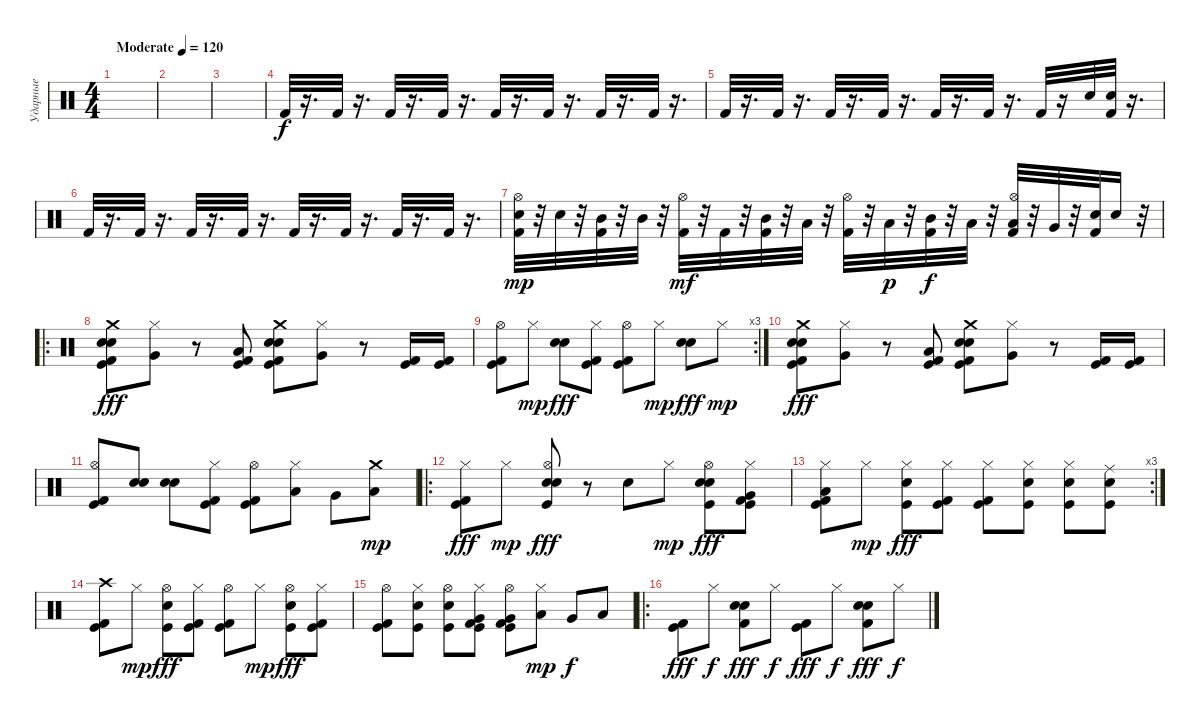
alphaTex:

\track ("Ударные" "Ударные") {instrument percussion}
\staff {score}
\articulation defaults
\ts (4 4)
\tempo (120 "Moderate")
\clef neutral
\ks c
|
|
|
"Kick (hit) 2".32 r.16{d} "Kick (hit) 2".32 r.16{d} "Kick (hit) 2".32 r.16{d} "Kick (hit) 2".32 r.16{d} "Kick (hit) 2".32 r.16{d} "Kick (hit) 2".32 r.16{d} "Kick (hit) 2".32 r.16{d} "Kick (hit) 2".32 r.16{d} |
"Kick (hit) 2".32 r.16{d} "Kick (hit) 2".32 r.16{d} "Kick (hit) 2".32 r.16{d} "Kick (hit) 2".32 r.16{d} "Kick (hit) 2".32 r.16{d} "Kick (hit) 2".32 r.16{d} "Kick (hit) 2".32 r.16 "Electric Snare (hit)".32 ("Kick (hit) 2" "Electric Snare (hit)").32 r.16{d} |
"Kick (hit) 2".32 r.16{d} "Kick (hit) 2".32 r.16{d} "Kick (hit) 2".32 r.16{d} "Kick (hit) 2".32 r.16{d} "Kick (hit) 2".32 r.16{d} "Kick (hit) 2".32 r.16{d} "Kick (hit) 2".32 r.16{d} "Kick (hit) 2".32 r.16{d} |
("Hi-Hat (open)" "Kick (hit) 2" "Electric Snare (hit)").32{dy mp} r.32 "Electric Snare (hit)".32 r.32 ("Kick (hit) 2" "Mid Tom (hit)").32 r.32 "Mid Tom (hit)".32 r.32 ("Hi-Hat (open)" "Kick (hit) 2").32{dy mf} r.32 "Kick (hit) 2".32 r.32 ("Kick (hit) 2" "Mid Tom (hit)").32 r.32 "Low Tom (hit)".32 r.32 ("Hi-Hat (open)" "Kick (hit) 2").32 r.32 "Low Tom (hit)".32{dy p} r.32 ("Kick (hit) 2" "Mid Tom (hit)").32{dy f} r.32 "Low Tom (hit)".32 r.32 ("Hi-Hat (open)" "Kick (hit) 2" "Low Tom (hit)").32 r.32 "Very Low Tom (hit)".32 r.32 ("Kick (hit) 2" "Electric Snare (hit)").32 "Electric Snare (hit)".16 r.32 |
\ro
("Crash medium (hit)" "Electric Snare (hit)" "Snare (hit) 2" "Kick (hit)" "Kick (hit) 2").8{dy fff} ("Hi-Hat (closed)" "Very Low Tom (hit)").8 r.8 ("Kick (hit) 2" "Low Tom (hit)" "Kick (hit)").8 ("Crash medium (hit)" "Snare (hit) 2" "Electric Snare (hit)" "Kick (hit)" "Kick (hit) 2").8 ("Hi-Hat (closed)" "Very Low Tom (hit)").8 r.8 ("Kick (hit) 2" "Kick (hit)").16 ("Kick (hit)" "Kick (hit) 2").16 |
\rc 3
("Hi-Hat (open)" "Kick (hit) 2" "Kick (hit)").8 "Hi-Hat (closed)".8{dy mp} ("Electric Snare (hit)" "Snare (hit) 2").8{dy fff} ("Hi-Hat (closed)" "Kick (hit)" "Kick (hit) 2").8 ("Hi-Hat (open)" "Kick (hit)" "Kick (hit) 2").8 "Hi-Hat (closed)".8{dy mp} ("Electric Snare (hit)" "Snare (hit) 2").8{dy fff} "Hi-Hat (closed)".8{dy mp} |
("Crash medium (hit)" "Electric Snare (hit)" "Snare (hit) 2" "Kick (hit)" "Kick (hit) 2").8{dy fff} ("Hi-Hat (closed)" "Very Low Tom (hit)").8 r.8 ("Kick (hit) 2" "Low Tom (hit)" "Kick (hit)").8 ("Crash medium (hit)" "Snare (hit) 2" "Electric Snare (hit)" "Kick (hit)" "Kick (hit) 2").8 ("Hi-Hat (closed)" "Very Low Tom (hit)").8 r.8 ("Kick (hit) 2" "Kick (hit)").16 ("Kick (hit)" "Kick (hit) 2").16 |
("Hi-Hat (open)" "Kick (hit)" "Kick (hit) 2").8 ("Electric Snare (hit)" "Snare (hit) 2").8 ("Electric Snare (hit)" "Snare (hit) 2").8 ("Hi-Hat (closed)" "Kick (hit)" "Kick (hit) 2").8 ("Hi-Hat (open)" "Kick (hit)" "Kick (hit) 2").8 ("Hi-Hat (closed)" "Low Floor Tom (hit)").8 "Very Low Tom (hit)".8 ("Crash medium (hit)" "Low Tom (hit)").8{dy mp} |
\ro
("Hi-Hat (closed)" "Kick (hit)" "Kick (hit) 2").8{dy fff} "Hi-Hat (closed)".8{dy mp} ("Hi-Hat (open)" "Electric Snare (hit)" "Snare (hit) 2" "Kick (hit)").8{dy fff} r.8 "Snare (hit) 2".8 "Hi-Hat (closed)".8{dy mp} ("Hi-Hat (open)" "Electric Snare (hit)" "Snare (hit) 2" "Kick (hit)").8{dy fff} ("Hi-Hat (closed)" "Very Low Tom (hit)" "Kick (hit) 2" "Kick (hit)").8 |
\rc 3
("Hi-Hat (closed)" "Low Tom (hit)" "Kick (hit)" "Kick (hit) 2").8 "Hi-Hat (closed)".8{dy mp} ("Hi-Hat (closed)" "Electric Snare (hit)" "Kick (hit)").8{dy fff} ("Hi-Hat (closed)" "Kick (hit)" "Kick (hit) 2").8 ("Hi-Hat (closed)" "Kick (hit)" "Kick (hit) 2").8 ("Hi-Hat (closed)" "Snare (hit) 2" "Kick (hit)").8 ("Hi-Hat (closed)" "Electric Snare (hit)" "Kick (hit)").8 ("Ride (middle)" "Snare (hit) 2" "Kick (hit)").8 |
("Crash high (hit)" "Kick (hit)" "Kick (hit) 2").8 "Hi-Hat (closed)".8{dy mp} ("Hi-Hat (open)" "Snare (hit) 2" "Kick (hit)").8{dy fff} ("Hi-Hat (closed)" "Kick (hit)" "Kick (hit) 2").8 ("Hi-Hat (open)" "Kick (hit)" "Kick (hit) 2").8 "Hi-Hat (closed)".8{dy mp} ("Hi-Hat (open)" "Snare (hit) 2" "Kick (hit)").8{dy fff} ("Hi-Hat (closed)" "Kick (hit)" "Kick (hit) 2").8 |
("Hi-Hat (open)" "Kick (hit)" "Kick (hit) 2").8 ("Hi-Hat (closed)" "Snare (hit) 2" "Kick (hit)").8 ("Hi-Hat (open)" "Snare (hit) 2" "Kick (hit)").8 ("Hi-Hat (closed)" "Very Low Tom (hit)" "Kick (hit)" "Kick (hit) 2").8 ("Hi-Hat (open)" "Very Low Tom (hit)" "Kick (hit)" "Kick (hit) 2").8 ("Hi-Hat (closed)" "Low Floor Tom (hit)").8{dy mp} "Very Low Tom (hit)".8{dy f} "Low Tom (hit)".8 |
\ro
("Kick (hit) 2" "Kick (hit)").8{dy fff} "Hi-Hat (closed)".8{dy f} ("Snare (hit) 2" "Electric Snare (hit)" "Kick (hit) 2").8{dy fff} "Hi-Hat (closed)".8{dy f} ("Kick (hit) 2" "Kick (hit)").8{dy fff} "Hi-Hat (closed)".8{dy f} ("Snare (hit) 2" "Electric Snare (hit)" "Kick (hit) 2").8{dy fff} "Hi-Hat (closed)".8{dy f}
